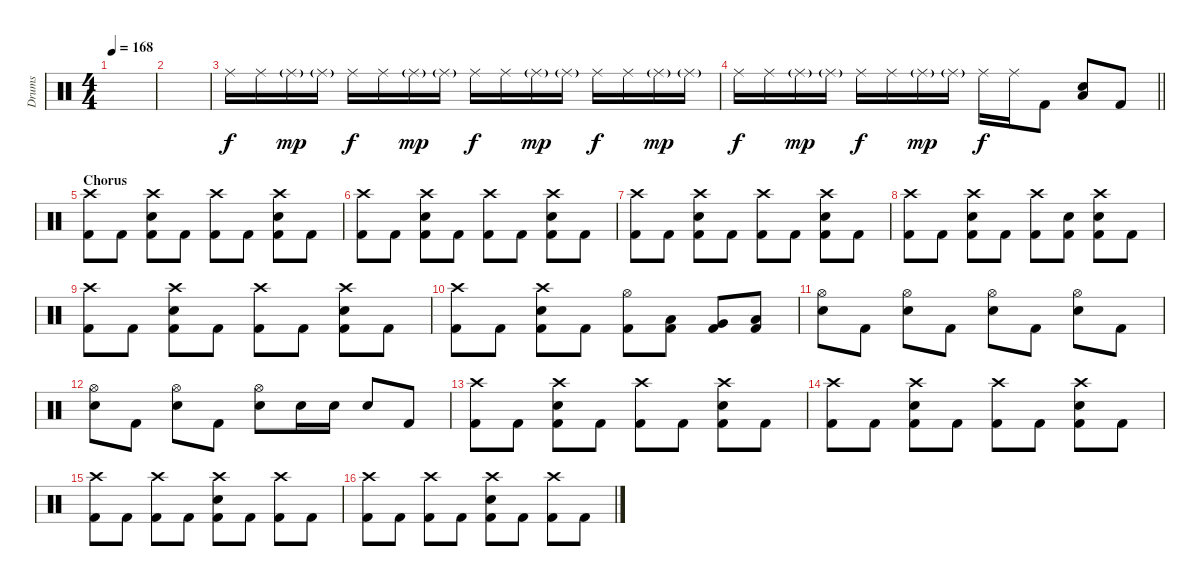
\track ("Drums" "Drums") {instrument percussion}
\staff {score}
\articulation defaults
\ts (4 4)
\tempo 168
\clef neutral
\ks c
|
|
"Ride (middle)".16 "Ride (middle)".16 "Ride (middle)"{g}.16{dy mp} "Ride (middle)"{g}.16 "Ride (middle)".16{dy f} "Ride (middle)".16 "Ride (middle)"{g}.16{dy mp} "Ride (middle)"{g}.16 "Ride (middle)".16{dy f} "Ride (middle)".16 "Ride (middle)"{g}.16{dy mp} "Ride (middle)"{g}.16 "Ride (middle)".16{dy f} "Ride (middle)".16 "Ride (middle)"{g}.16{dy mp} "Ride (middle)"{g}.16 |
\barLineRight lightlight "Ride (middle)".16{dy f} "Ride (middle)".16 "Ride (middle)"{g}.16{dy mp} "Ride (middle)"{g}.16 "Ride (middle)".16{dy f} "Ride (middle)".16 "Ride (middle)"{g}.16{dy mp} "Ride (middle)"{g}.16 "Ride (middle)".16{dy f} "Ride (middle)".16 "Kick (hit) 2".8
("Low Floor Tom (hit)" "Electric Snare (hit)").8 "Kick (hit) 2".8 |
\section ("" "Chorus")
("Crash high (hit)" "Kick (hit) 2").8 "Kick (hit) 2".8 ("Crash high (hit)" "Electric Snare (hit)" "Kick (hit) 2").8 "Kick (hit) 2".8 ("Crash high (hit)" "Kick (hit) 2").8 "Kick (hit) 2".8 ("Crash high (hit)" "Electric Snare (hit)" "Kick (hit) 2").8 "Kick (hit) 2".8 |
("Crash high (hit)" "Kick (hit) 2").8 "Kick (hit) 2".8 ("Crash high (hit)" "Electric Snare (hit)" "Kick (hit) 2").8 "Kick (hit) 2".8 ("Crash high (hit)" "Kick (hit) 2").8 "Kick (hit) 2".8 ("Crash high (hit)" "Electric Snare (hit)" "Kick (hit) 2").8 "Kick (hit) 2".8 |
("Crash high (hit)" "Kick (hit) 2").8 "Kick (hit) 2".8 ("Crash high (hit)" "Electric Snare (hit)" "Kick (hit) 2").8 "Kick (hit) 2".8 ("Crash high (hit)" "Kick (hit) 2").8 "Kick (hit) 2".8 ("Crash high (hit)" "Electric Snare (hit)" "Kick (hit) 2").8 "Kick (hit) 2".8 |
("Crash high (hit)" "Kick (hit) 2").8 "Kick (hit) 2".8 ("Crash high (hit)" "Electric Snare (hit)" "Kick (hit) 2").8 "Kick (hit) 2".8 ("Crash high (hit)" "Kick (hit) 2").8 ("Electric Snare (hit)" "Kick (hit) 2").8 ("Crash high (hit)" "Electric Snare (hit)" "Kick (hit) 2").8 "Kick (hit) 2".8 |
("Crash high (hit)" "Kick (hit) 2").8 "Kick (hit) 2".8 ("Crash high (hit)" "Electric Snare (hit)" "Kick (hit) 2").8 "Kick (hit) 2".8 ("Crash high (hit)" "Kick (hit) 2").8 "Kick (hit) 2".8 ("Crash high (hit)" "Electric Snare (hit)" "Kick (hit) 2").8 "Kick (hit) 2".8 |
("Crash high (hit)" "Kick (hit) 2").8 "Kick (hit) 2".8 ("Crash high (hit)" "Electric Snare (hit)" "Kick (hit) 2").8 "Kick (hit) 2".8 ("Hi-Hat (open)" "Kick (hit) 2").8 ("Low Tom (hit)" "Kick (hit) 2").8 ("Very Low Tom (hit)" "Kick (hit) 2").8 ("Low Floor Tom (hit)" "Kick (hit) 2").8 |
("Hi-Hat (open)" "Electric Snare (hit)").8 "Kick (hit) 2".8 ("Hi-Hat (open)" "Electric Snare (hit)").8 "Kick (hit) 2".8 ("Hi-Hat (open)" "Electric Snare (hit)").8 "Kick (hit) 2".8 ("Hi-Hat (open)" "Electric Snare (hit)").8 "Kick (hit) 2".8 |
("Hi-Hat (open)" "Electric Snare (hit)").8 "Kick (hit) 2".8 ("Hi-Hat (open)" "Electric Snare (hit)").8 "Kick (hit) 2".8 ("Hi-Hat (open)" "Electric Snare (hit)").8 "Electric Snare (hit)".16 "Electric Snare (hit)".16 "Electric Snare (hit)".8 "Kick (hit) 2".8 |
("Crash high (hit)" "Kick (hit) 2").8 "Kick (hit) 2".8 ("Crash high (hit)" "Electric Snare (hit)" "Kick (hit) 2").8 "Kick (hit) 2".8 ("Crash high (hit)" "Kick (hit) 2").8 "Kick (hit) 2".8 ("Crash high (hit)" "Electric Snare (hit)" "Kick (hit) 2").8 "Kick (hit) 2".8 |
("Crash high (hit)" "Kick (hit) 2").8 "Kick (hit) 2".8 ("Crash high (hit)" "Electric Snare (hit)" "Kick (hit) 2").8 "Kick (hit) 2".8 ("Crash high (hit)" "Kick (hit) 2").8 "Kick (hit) 2".8 ("Crash high (hit)" "Electric Snare (hit)" "Kick (hit) 2").8 "Kick (hit) 2".8 |
("Crash high (hit)" "Kick (hit) 2").8 "Kick (hit) 2".8 ("Crash high (hit)" "Kick (hit) 2").8 "Kick (hit) 2".8 ("Crash high (hit)" "Electric Snare (hit)" "Kick (hit) 2").8 "Kick (hit) 2".8 ("Crash high (hit)" "Kick (hit) 2").8 "Kick (hit) 2".8 |
("Crash high (hit)" "Kick (hit) 2").8 "Kick (hit) 2".8 ("Crash high (hit)" "Kick (hit) 2").8 "Kick (hit) 2".8 ("Crash high (hit)" "Electric Snare (hit)" "Kick (hit) 2").8 "Kick (hit) 2".8 ("Crash high (hit)" "Kick (hit) 2").8 "Kick (hit) 2".8
